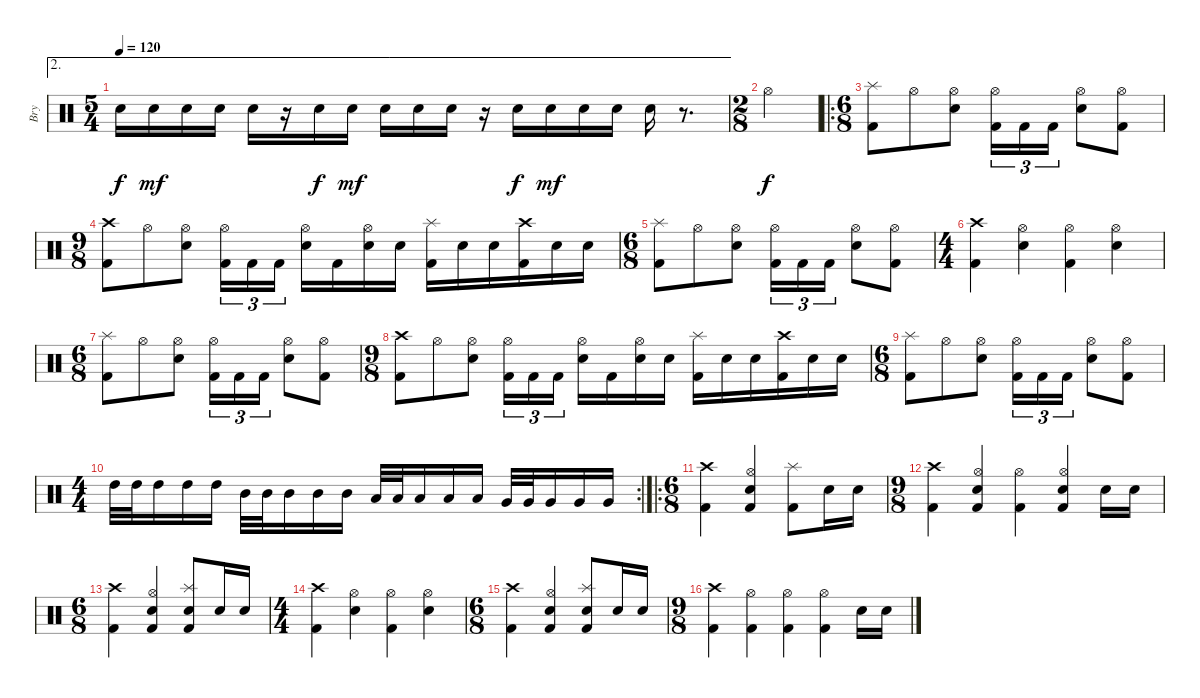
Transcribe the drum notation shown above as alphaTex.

\track ("Bry" "Bry") {instrument percussion}
\staff {score}
\articulation defaults
\ae 2
\ts (5 4)
\tempo 120
\clef neutral
\ks c "Snare (hit) 2".16{dy f} "Snare (hit) 2".16{dy mf} "Snare (hit) 2".16 "Snare (hit) 2".16 "Snare (hit) 2".16
r.16 "Snare (hit) 2".16{dy f} "Snare (hit) 2".16{dy mf} "Snare (hit) 2".16 "Snare (hit) 2".16 "Snare (hit) 2".16 r.16 "Snare (hit) 2".16{dy f} "Snare (hit) 2".16{dy mf} "Snare (hit) 2".16 "Snare (hit) 2".16 "Snare (hit) 2".16 r.8{d} |
\ts (2 8)
"Hi-Hat (open)".4{dy f} |
\ro
\ts (6 8)
("Splash (hit)" "Kick (hit) 2").8 "Hi-Hat (open)".8 ("Hi-Hat (open)" "Snare (hit) 2").8 ("Hi-Hat (open)" "Kick (hit) 2").16{tu (3 2)} "Kick (hit) 2".16{tu (3 2)} "Kick (hit) 2".16{tu (3 2)} ("Hi-Hat (open)" "Snare (hit) 2").8 ("Hi-Hat (open)" "Kick (hit) 2").8 |
\ts (9 8)
("Crash high (hit)" "Kick (hit) 2").8 "Hi-Hat (open)".8 ("Hi-Hat (open)" "Snare (hit) 2").8 ("Hi-Hat (open)" "Kick (hit) 2").16{tu (3 2)} "Kick (hit) 2".16{tu (3 2)} "Kick (hit) 2".16{tu (3 2)} ("Hi-Hat (open)" "Snare (hit) 2").16 "Kick (hit) 2".16 ("Hi-Hat (open)" "Snare (hit) 2").16 "Snare (hit) 2".16 ("Splash (hit)" "Kick (hit) 2").16 "Snare (hit) 2".16 "Snare (hit) 2".16 ("Crash high (hit)" "Kick (hit) 2").16 "Snare (hit) 2".16 "Snare (hit) 2".16 |
\ts (6 8)
("Splash (hit)" "Kick (hit) 2").8 "Hi-Hat (open)".8 ("Hi-Hat (open)" "Snare (hit) 2").8 ("Hi-Hat (open)" "Kick (hit) 2").16{tu (3 2)} "Kick (hit) 2".16{tu (3 2)} "Kick (hit) 2".16{tu (3 2)} ("Hi-Hat (open)" "Snare (hit) 2").8 ("Hi-Hat (open)" "Kick (hit) 2").8 |
\ts (4 4)
("Crash high (hit)" "Kick (hit) 2").4 ("Hi-Hat (open)" "Snare (hit) 2").4 ("Hi-Hat (open)" "Kick (hit) 2").4 ("Hi-Hat (open)" "Snare (hit) 2").4 |
\ts (6 8)
("Splash (hit)" "Kick (hit) 2").8 "Hi-Hat (open)".8 ("Hi-Hat (open)" "Snare (hit) 2").8 ("Hi-Hat (open)" "Kick (hit) 2").16{tu (3 2)} "Kick (hit) 2".16{tu (3 2)} "Kick (hit) 2".16{tu (3 2)} ("Hi-Hat (open)" "Snare (hit) 2").8 ("Hi-Hat (open)" "Kick (hit) 2").8 |
\ts (9 8)
("Crash high (hit)" "Kick (hit) 2").8 "Hi-Hat (open)".8 ("Hi-Hat (open)" "Snare (hit) 2").8 ("Hi-Hat (open)" "Kick (hit) 2").16{tu (3 2)} "Kick (hit) 2".16{tu (3 2)} "Kick (hit) 2".16{tu (3 2)} ("Hi-Hat (open)" "Snare (hit) 2").16 "Kick (hit) 2".16 ("Hi-Hat (open)" "Snare (hit) 2").16 "Snare (hit) 2".16 ("Splash (hit)" "Kick (hit) 2").16 "Snare (hit) 2".16 "Snare (hit) 2".16 ("Crash high (hit)" "Kick (hit) 2").16 "Snare (hit) 2".16 "Snare (hit) 2".16 |
\ts (6 8)
("Splash (hit)" "Kick (hit) 2").8 "Hi-Hat (open)".8 ("Hi-Hat (open)" "Snare (hit) 2").8 ("Hi-Hat (open)" "Kick (hit) 2").16{tu (3 2)} "Kick (hit) 2".16{tu (3 2)} "Kick (hit) 2".16{tu (3 2)} ("Hi-Hat (open)" "Snare (hit) 2").8 ("Hi-Hat (open)" "Kick (hit) 2").8 |
\rc 2
\ts (4 4)
"High Tom (hit)".32 "High Tom (hit)".32 "High Tom (hit)".16 "High Tom (hit)".16 "High Tom (hit)".16 "Mid Tom (hit)".32 "Mid Tom (hit)".32 "Mid Tom (hit)".16 "Mid Tom (hit)".16 "Mid Tom (hit)".16 "Low Tom (hit)".32 "Low Tom (hit)".32 "Low Tom (hit)".16 "Low Tom (hit)".16 "Low Tom (hit)".16 "Very Low Tom (hit)".32 "Very Low Tom (hit)".32 "Very Low Tom (hit)".16 "Very Low Tom (hit)".16 "Very Low Tom (hit)".16 |
\ro
\ts (6 8)
("Crash high (hit)" "Kick (hit) 2").4 ("Hi-Hat (open)" "Snare (hit) 2" "Kick (hit) 2").4 ("Splash (hit)" "Kick (hit) 2").8 "Snare (hit) 2".16 "Snare (hit) 2".16 |
\ts (9 8)
("Crash high (hit)" "Kick (hit) 2").4 ("Hi-Hat (open)" "Snare (hit) 2" "Kick (hit) 2").4 ("Hi-Hat (open)" "Kick (hit) 2").4 ("Hi-Hat (open)" "Snare (hit) 2" "Kick (hit) 2").4 "Snare (hit) 2".16 "Snare (hit) 2".16 |
\ts (6 8)
("Crash high (hit)" "Kick (hit) 2").4 ("Hi-Hat (open)" "Snare (hit) 2" "Kick (hit) 2").4 ("Splash (hit)" "Snare (hit) 2" "Kick (hit) 2").8 "Snare (hit) 2".16 "Snare (hit) 2".16 |
\ts (4 4)
("Crash high (hit)" "Kick (hit) 2").4 ("Hi-Hat (open)" "Snare (hit) 2").4 ("Hi-Hat (open)" "Kick (hit) 2").4 ("Hi-Hat (open)" "Snare (hit) 2").4 |
\ts (6 8)
("Crash high (hit)" "Kick (hit) 2").4 ("Hi-Hat (open)" "Snare (hit) 2" "Kick (hit) 2").4 ("Splash (hit)" "Snare (hit) 2" "Kick (hit) 2").8 "Snare (hit) 2".16 "Snare (hit) 2".16 |
\ts (9 8)
("Crash high (hit)" "Kick (hit) 2").4 ("Hi-Hat (open)" "Kick (hit) 2").4 ("Hi-Hat (open)" "Kick (hit) 2").4 ("Hi-Hat (open)" "Kick (hit) 2").4 "Snare (hit) 2".16 "Snare (hit) 2".16
